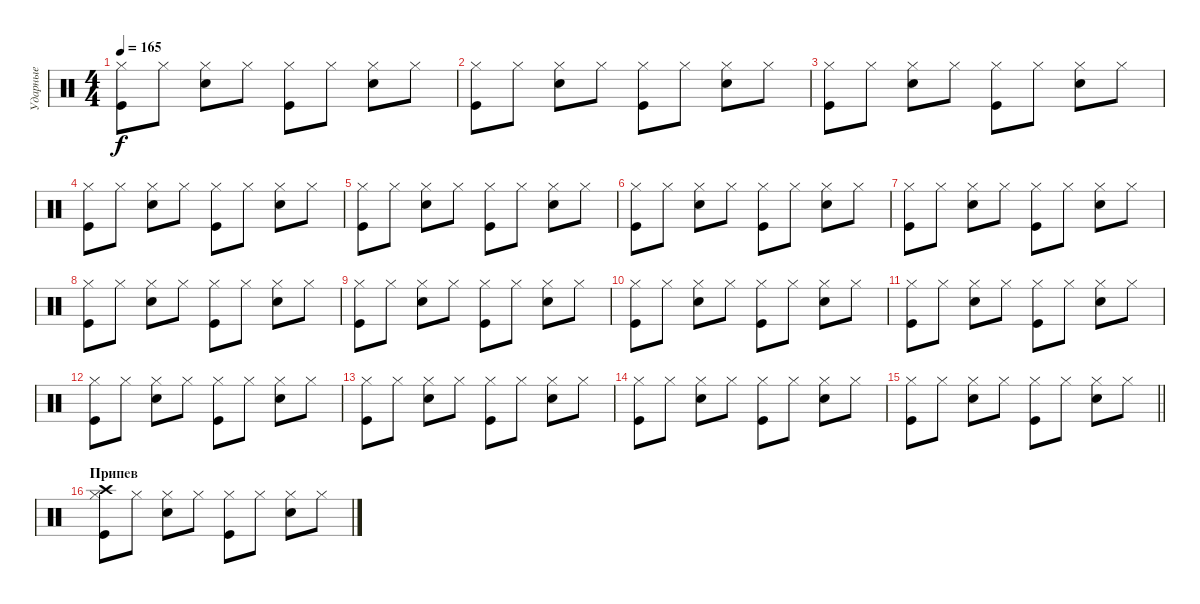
\track ("Ударные" "Ударные") {instrument percussion}
\staff {score}
\articulation defaults
\ts (4 4)
\tempo 165
\clef neutral
\ks c
("Kick (hit)" "Hi-Hat (closed)").8{dy f} "Hi-Hat (closed)".8 ("Snare (hit) 2" "Hi-Hat (closed)").8 "Hi-Hat (closed)".8 ("Kick (hit)" "Hi-Hat (closed)").8 "Hi-Hat (closed)".8 ("Snare (hit) 2" "Hi-Hat (closed)").8 "Hi-Hat (closed)".8 |
("Kick (hit)" "Hi-Hat (closed)").8 "Hi-Hat (closed)".8 ("Snare (hit) 2" "Hi-Hat (closed)").8 "Hi-Hat (closed)".8 ("Kick (hit)" "Hi-Hat (closed)").8 "Hi-Hat (closed)".8 ("Snare (hit) 2" "Hi-Hat (closed)").8 "Hi-Hat (closed)".8 |
("Kick (hit)" "Hi-Hat (closed)").8 "Hi-Hat (closed)".8 ("Snare (hit) 2" "Hi-Hat (closed)").8 "Hi-Hat (closed)".8 ("Kick (hit)" "Hi-Hat (closed)").8 "Hi-Hat (closed)".8 ("Snare (hit) 2" "Hi-Hat (closed)").8 "Hi-Hat (closed)".8 |
("Kick (hit)" "Hi-Hat (closed)").8 "Hi-Hat (closed)".8 ("Snare (hit) 2" "Hi-Hat (closed)").8 "Hi-Hat (closed)".8 ("Kick (hit)" "Hi-Hat (closed)").8 "Hi-Hat (closed)".8 ("Snare (hit) 2" "Hi-Hat (closed)").8 "Hi-Hat (closed)".8 |
("Kick (hit)" "Hi-Hat (closed)").8 "Hi-Hat (closed)".8 ("Snare (hit) 2" "Hi-Hat (closed)").8 "Hi-Hat (closed)".8 ("Kick (hit)" "Hi-Hat (closed)").8 "Hi-Hat (closed)".8 ("Snare (hit) 2" "Hi-Hat (closed)").8 "Hi-Hat (closed)".8 |
("Kick (hit)" "Hi-Hat (closed)").8 "Hi-Hat (closed)".8 ("Snare (hit) 2" "Hi-Hat (closed)").8 "Hi-Hat (closed)".8 ("Kick (hit)" "Hi-Hat (closed)").8 "Hi-Hat (closed)".8 ("Snare (hit) 2" "Hi-Hat (closed)").8 "Hi-Hat (closed)".8 |
("Kick (hit)" "Hi-Hat (closed)").8 "Hi-Hat (closed)".8 ("Snare (hit) 2" "Hi-Hat (closed)").8 "Hi-Hat (closed)".8 ("Kick (hit)" "Hi-Hat (closed)").8 "Hi-Hat (closed)".8 ("Snare (hit) 2" "Hi-Hat (closed)").8 "Hi-Hat (closed)".8 |
("Kick (hit)" "Hi-Hat (closed)").8 "Hi-Hat (closed)".8 ("Snare (hit) 2" "Hi-Hat (closed)").8 "Hi-Hat (closed)".8 ("Kick (hit)" "Hi-Hat (closed)").8 "Hi-Hat (closed)".8 ("Snare (hit) 2" "Hi-Hat (closed)").8 "Hi-Hat (closed)".8 |
("Kick (hit)" "Hi-Hat (closed)").8 "Hi-Hat (closed)".8 ("Snare (hit) 2" "Hi-Hat (closed)").8 "Hi-Hat (closed)".8 ("Kick (hit)" "Hi-Hat (closed)").8 "Hi-Hat (closed)".8 ("Snare (hit) 2" "Hi-Hat (closed)").8 "Hi-Hat (closed)".8 |
("Kick (hit)" "Hi-Hat (closed)").8 "Hi-Hat (closed)".8 ("Snare (hit) 2" "Hi-Hat (closed)").8 "Hi-Hat (closed)".8 ("Kick (hit)" "Hi-Hat (closed)").8 "Hi-Hat (closed)".8 ("Snare (hit) 2" "Hi-Hat (closed)").8 "Hi-Hat (closed)".8 |
("Kick (hit)" "Hi-Hat (closed)").8 "Hi-Hat (closed)".8 ("Snare (hit) 2" "Hi-Hat (closed)").8 "Hi-Hat (closed)".8 ("Kick (hit)" "Hi-Hat (closed)").8 "Hi-Hat (closed)".8 ("Snare (hit) 2" "Hi-Hat (closed)").8 "Hi-Hat (closed)".8 |
("Kick (hit)" "Hi-Hat (closed)").8 "Hi-Hat (closed)".8 ("Snare (hit) 2" "Hi-Hat (closed)").8 "Hi-Hat (closed)".8 ("Kick (hit)" "Hi-Hat (closed)").8 "Hi-Hat (closed)".8 ("Snare (hit) 2" "Hi-Hat (closed)").8 "Hi-Hat (closed)".8 |
("Kick (hit)" "Hi-Hat (closed)").8 "Hi-Hat (closed)".8 ("Snare (hit) 2" "Hi-Hat (closed)").8 "Hi-Hat (closed)".8 ("Kick (hit)" "Hi-Hat (closed)").8 "Hi-Hat (closed)".8 ("Snare (hit) 2" "Hi-Hat (closed)").8 "Hi-Hat (closed)".8 |
("Kick (hit)" "Hi-Hat (closed)").8 "Hi-Hat (closed)".8 ("Snare (hit) 2" "Hi-Hat (closed)").8 "Hi-Hat (closed)".8 ("Kick (hit)" "Hi-Hat (closed)").8 "Hi-Hat (closed)".8 ("Snare (hit) 2" "Hi-Hat (closed)").8 "Hi-Hat (closed)".8 |
\barLineRight lightlight
("Kick (hit)" "Hi-Hat (closed)").8 "Hi-Hat (closed)".8 ("Snare (hit) 2" "Hi-Hat (closed)").8 "Hi-Hat (closed)".8 ("Kick (hit)" "Hi-Hat (closed)").8 "Hi-Hat (closed)".8 ("Snare (hit) 2" "Hi-Hat (closed)").8 "Hi-Hat (closed)".8 |
\section ("" "Припев")
("Kick (hit)" "Hi-Hat (closed)" "Crash high (hit)").8 "Hi-Hat (closed)".8 ("Snare (hit) 2" "Hi-Hat (closed)").8 "Hi-Hat (closed)".8 ("Kick (hit)" "Hi-Hat (closed)").8 "Hi-Hat (closed)".8 ("Snare (hit) 2" "Hi-Hat (closed)").8 "Hi-Hat (closed)".8
